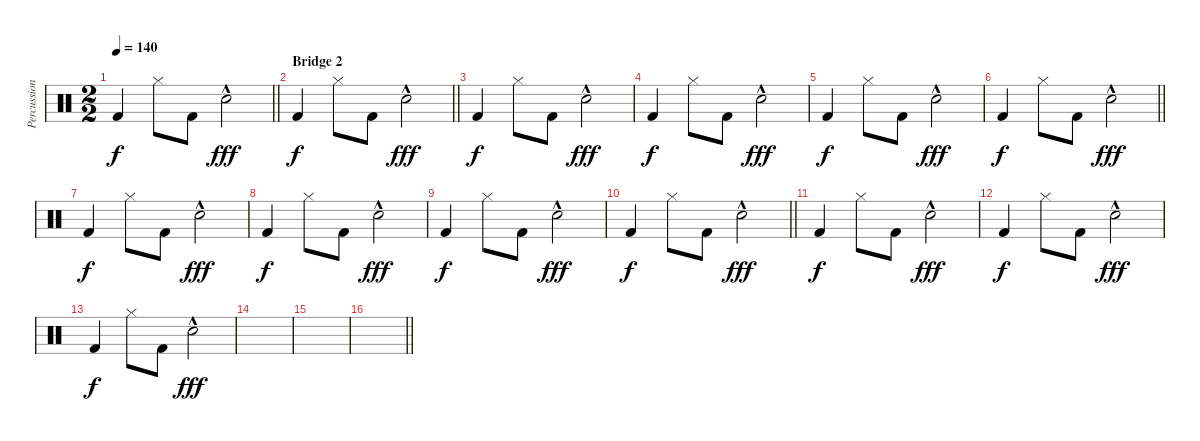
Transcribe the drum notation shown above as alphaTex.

\track ("Percussion" "Percussion") {instrument percussion}
\staff {score}
\articulation defaults
\ts (2 2)
\tempo 140
\clef neutral
\barLineRight lightlight
\ks c "Kick (hit) 2".4{dy f} "Hi-Hat (closed)".8 "Kick (hit) 2".8 "Hand Clap (hit)"{hac}.2{dy fff}
|
\section ("" "Bridge 2")
\barLineRight lightlight "Kick (hit) 2".4{dy f} "Hi-Hat (closed)".8 "Kick (hit) 2".8 "Hand Clap (hit)"{hac}.2{dy fff}
|
"Kick (hit) 2".4{dy f} "Hi-Hat (closed)".8 "Kick (hit) 2".8 "Hand Clap (hit)"{hac}.2{dy fff} |
"Kick (hit) 2".4{dy f} "Hi-Hat (closed)".8 "Kick (hit) 2".8 "Hand Clap (hit)"{hac}.2{dy fff} |
"Kick (hit) 2".4{dy f} "Hi-Hat (closed)".8 "Kick (hit) 2".8 "Hand Clap (hit)"{hac}.2{dy fff} |
\barLineRight lightlight "Kick (hit) 2".4{dy f} "Hi-Hat (closed)".8 "Kick (hit) 2".8 "Hand Clap (hit)"{hac}.2{dy fff}
|
"Kick (hit) 2".4{dy f} "Hi-Hat (closed)".8 "Kick (hit) 2".8 "Hand Clap (hit)"{hac}.2{dy fff} |
"Kick (hit) 2".4{dy f} "Hi-Hat (closed)".8 "Kick (hit) 2".8 "Hand Clap (hit)"{hac}.2{dy fff} |
"Kick (hit) 2".4{dy f} "Hi-Hat (closed)".8 "Kick (hit) 2".8 "Hand Clap (hit)"{hac}.2{dy fff} |
\barLineRight lightlight "Kick (hit) 2".4{dy f} "Hi-Hat (closed)".8 "Kick (hit) 2".8 "Hand Clap (hit)"{hac}.2{dy fff}
|
"Kick (hit) 2".4{dy f} "Hi-Hat (closed)".8 "Kick (hit) 2".8 "Hand Clap (hit)"{hac}.2{dy fff} |
"Kick (hit) 2".4{dy f} "Hi-Hat (closed)".8 "Kick (hit) 2".8 "Hand Clap (hit)"{hac}.2{dy fff} |
"Kick (hit) 2".4{dy f} "Hi-Hat (closed)".8 "Kick (hit) 2".8 "Hand Clap (hit)"{hac}.2{dy fff} |
|
|
\barLineRight lightlight
